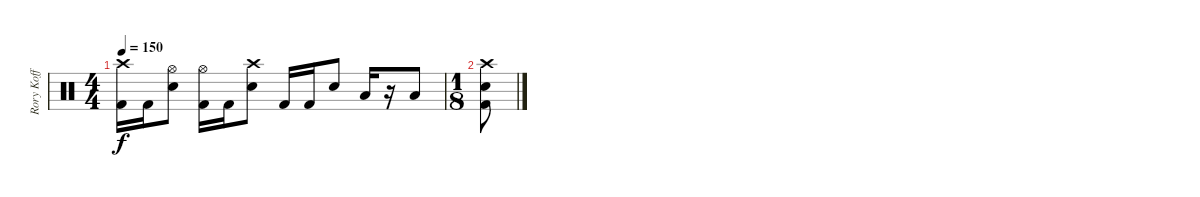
\track ("Rory Koff" "Rory Koff") {instrument percussion}
\staff {score}
\articulation defaults
\ts (4 4)
\tempo 150
\clef neutral
\ks c
("Crash high (hit)" "Kick (hit) 2").16{dy f} "Kick (hit) 2".16 ("Hi-Hat (open)" "Electric Snare (hit)").8 ("Hi-Hat (open)" "Kick (hit) 2").16 "Kick (hit) 2".16 ("Crash high (hit)" "Electric Snare (hit)").8 "Kick (hit) 2".16 "Kick (hit) 2".16 "Electric Snare (hit)".8 "Low Tom (hit)".16 r.16 "Low Floor Tom (hit)".8 |
\ts (1 8)
("Electric Snare (hit)" "Kick (hit) 2" "Crash high (hit)").8
